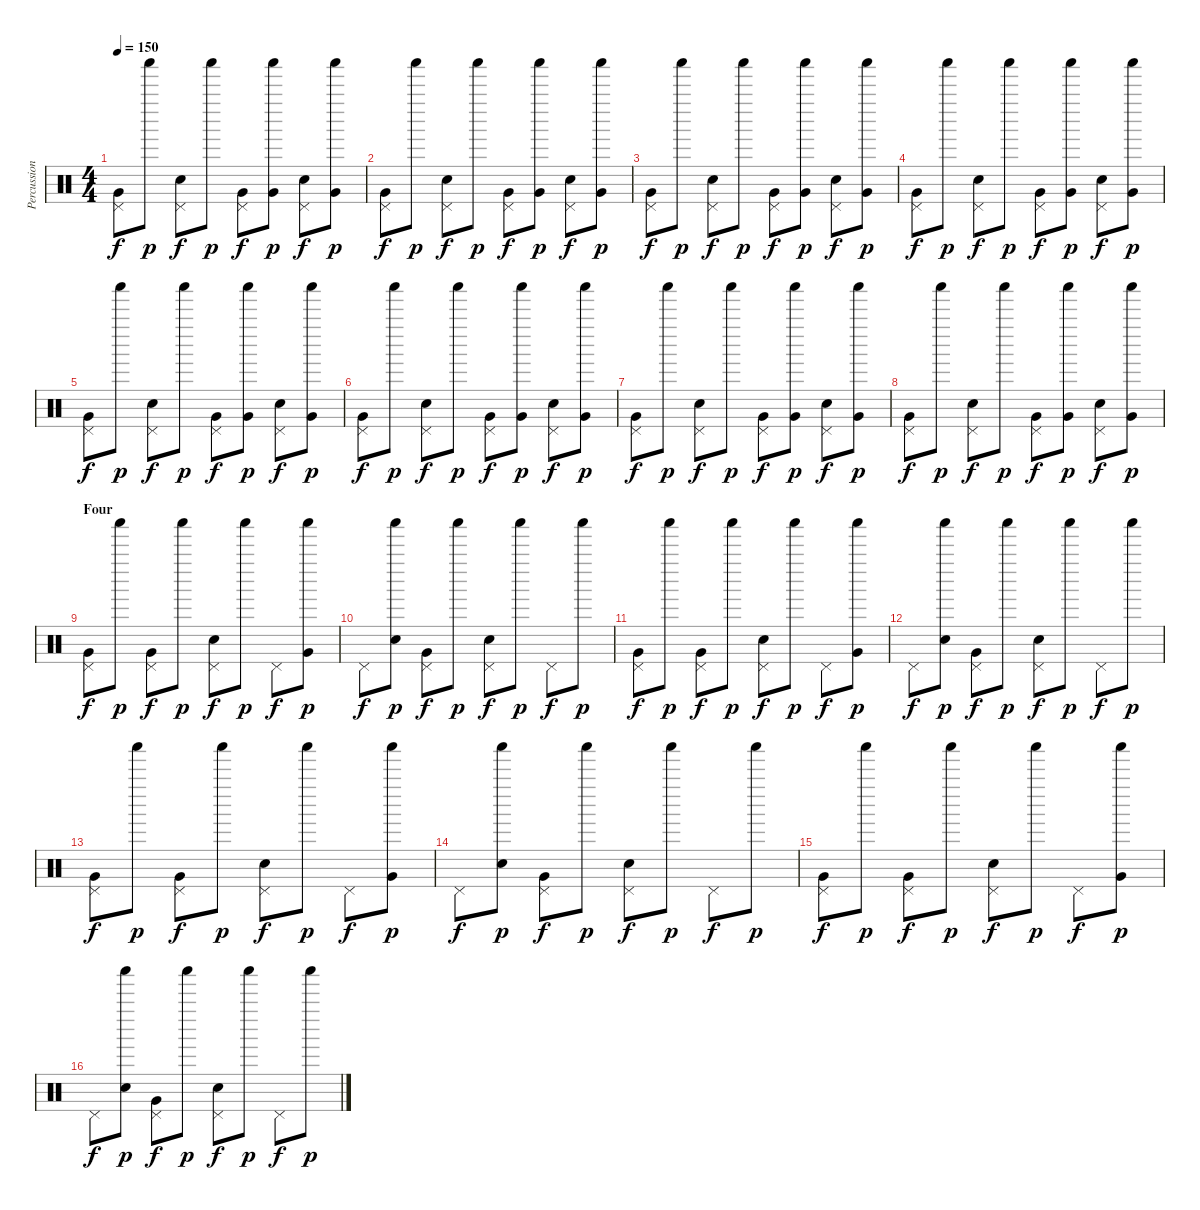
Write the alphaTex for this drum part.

\track ("Percussion" "Percussion") {instrument percussion}
\staff {score}
\articulation defaults
\ts (4 4)
\tempo 150
\clef neutral
\ks c
("Very Low Tom (hit)" "Pedal Hi-Hat (hit)").8{dy f} "Shaker (hit)".8{dy p} ("Snare (hit) 2" "Pedal Hi-Hat (hit)").8{dy f} "Shaker (hit)".8{dy p} ("Very Low Tom (hit)" "Pedal Hi-Hat (hit)").8{dy f} ("Very Low Tom (hit)" "Shaker (hit)").8{dy p} ("Snare (hit) 2" "Pedal Hi-Hat (hit)").8{dy f} ("Very Low Tom (hit)" "Shaker (hit)").8{dy p} |
("Very Low Tom (hit)" "Pedal Hi-Hat (hit)").8{dy f} "Shaker (hit)".8{dy p} ("Snare (hit) 2" "Pedal Hi-Hat (hit)").8{dy f} "Shaker (hit)".8{dy p} ("Very Low Tom (hit)" "Pedal Hi-Hat (hit)").8{dy f} ("Very Low Tom (hit)" "Shaker (hit)").8{dy p} ("Snare (hit) 2" "Pedal Hi-Hat (hit)").8{dy f} ("Very Low Tom (hit)" "Shaker (hit)").8{dy p} |
("Very Low Tom (hit)" "Pedal Hi-Hat (hit)").8{dy f} "Shaker (hit)".8{dy p} ("Snare (hit) 2" "Pedal Hi-Hat (hit)").8{dy f} "Shaker (hit)".8{dy p} ("Very Low Tom (hit)" "Pedal Hi-Hat (hit)").8{dy f} ("Very Low Tom (hit)" "Shaker (hit)").8{dy p} ("Snare (hit) 2" "Pedal Hi-Hat (hit)").8{dy f} ("Very Low Tom (hit)" "Shaker (hit)").8{dy p} |
("Very Low Tom (hit)" "Pedal Hi-Hat (hit)").8{dy f} "Shaker (hit)".8{dy p} ("Snare (hit) 2" "Pedal Hi-Hat (hit)").8{dy f} "Shaker (hit)".8{dy p} ("Very Low Tom (hit)" "Pedal Hi-Hat (hit)").8{dy f} ("Very Low Tom (hit)" "Shaker (hit)").8{dy p} ("Snare (hit) 2" "Pedal Hi-Hat (hit)").8{dy f} ("Very Low Tom (hit)" "Shaker (hit)").8{dy p} |
("Very Low Tom (hit)" "Pedal Hi-Hat (hit)").8{dy f} "Shaker (hit)".8{dy p} ("Snare (hit) 2" "Pedal Hi-Hat (hit)").8{dy f} "Shaker (hit)".8{dy p} ("Very Low Tom (hit)" "Pedal Hi-Hat (hit)").8{dy f} ("Very Low Tom (hit)" "Shaker (hit)").8{dy p} ("Snare (hit) 2" "Pedal Hi-Hat (hit)").8{dy f} ("Very Low Tom (hit)" "Shaker (hit)").8{dy p} |
("Very Low Tom (hit)" "Pedal Hi-Hat (hit)").8{dy f} "Shaker (hit)".8{dy p} ("Snare (hit) 2" "Pedal Hi-Hat (hit)").8{dy f} "Shaker (hit)".8{dy p} ("Very Low Tom (hit)" "Pedal Hi-Hat (hit)").8{dy f} ("Very Low Tom (hit)" "Shaker (hit)").8{dy p} ("Snare (hit) 2" "Pedal Hi-Hat (hit)").8{dy f} ("Very Low Tom (hit)" "Shaker (hit)").8{dy p} |
("Very Low Tom (hit)" "Pedal Hi-Hat (hit)").8{dy f} "Shaker (hit)".8{dy p} ("Snare (hit) 2" "Pedal Hi-Hat (hit)").8{dy f} "Shaker (hit)".8{dy p} ("Very Low Tom (hit)" "Pedal Hi-Hat (hit)").8{dy f} ("Very Low Tom (hit)" "Shaker (hit)").8{dy p} ("Snare (hit) 2" "Pedal Hi-Hat (hit)").8{dy f} ("Very Low Tom (hit)" "Shaker (hit)").8{dy p} |
("Very Low Tom (hit)" "Pedal Hi-Hat (hit)").8{dy f} "Shaker (hit)".8{dy p} ("Snare (hit) 2" "Pedal Hi-Hat (hit)").8{dy f} "Shaker (hit)".8{dy p} ("Very Low Tom (hit)" "Pedal Hi-Hat (hit)").8{dy f} ("Very Low Tom (hit)" "Shaker (hit)").8{dy p} ("Snare (hit) 2" "Pedal Hi-Hat (hit)").8{dy f} ("Very Low Tom (hit)" "Shaker (hit)").8{dy p} |
\section ("" "Four")
("Very Low Tom (hit)" "Pedal Hi-Hat (hit)").8{dy f} "Shaker (hit)".8{dy p} ("Very Low Tom (hit)" "Pedal Hi-Hat (hit)").8{dy f} "Shaker (hit)".8{dy p} ("Snare (hit) 2" "Pedal Hi-Hat (hit)").8{dy f} "Shaker (hit)".8{dy p} "Pedal Hi-Hat (hit)".8{dy f} ("Very Low Tom (hit)" "Shaker (hit)").8{dy p} |
"Pedal Hi-Hat (hit)".8{dy f} ("Snare (hit) 2" "Shaker (hit)").8{dy p} ("Very Low Tom (hit)" "Pedal Hi-Hat (hit)").8{dy f} "Shaker (hit)".8{dy p} ("Snare (hit) 2" "Pedal Hi-Hat (hit)").8{dy f} "Shaker (hit)".8{dy p} "Pedal Hi-Hat (hit)".8{dy f} "Shaker (hit)".8{dy p} |
("Very Low Tom (hit)" "Pedal Hi-Hat (hit)").8{dy f} "Shaker (hit)".8{dy p} ("Very Low Tom (hit)" "Pedal Hi-Hat (hit)").8{dy f} "Shaker (hit)".8{dy p} ("Snare (hit) 2" "Pedal Hi-Hat (hit)").8{dy f} "Shaker (hit)".8{dy p} "Pedal Hi-Hat (hit)".8{dy f} ("Very Low Tom (hit)" "Shaker (hit)").8{dy p} |
"Pedal Hi-Hat (hit)".8{dy f} ("Snare (hit) 2" "Shaker (hit)").8{dy p} ("Very Low Tom (hit)" "Pedal Hi-Hat (hit)").8{dy f} "Shaker (hit)".8{dy p} ("Snare (hit) 2" "Pedal Hi-Hat (hit)").8{dy f} "Shaker (hit)".8{dy p} "Pedal Hi-Hat (hit)".8{dy f} "Shaker (hit)".8{dy p} |
("Very Low Tom (hit)" "Pedal Hi-Hat (hit)").8{dy f} "Shaker (hit)".8{dy p} ("Very Low Tom (hit)" "Pedal Hi-Hat (hit)").8{dy f} "Shaker (hit)".8{dy p} ("Snare (hit) 2" "Pedal Hi-Hat (hit)").8{dy f} "Shaker (hit)".8{dy p} "Pedal Hi-Hat (hit)".8{dy f} ("Very Low Tom (hit)" "Shaker (hit)").8{dy p} |
"Pedal Hi-Hat (hit)".8{dy f} ("Snare (hit) 2" "Shaker (hit)").8{dy p} ("Very Low Tom (hit)" "Pedal Hi-Hat (hit)").8{dy f} "Shaker (hit)".8{dy p} ("Snare (hit) 2" "Pedal Hi-Hat (hit)").8{dy f} "Shaker (hit)".8{dy p} "Pedal Hi-Hat (hit)".8{dy f} "Shaker (hit)".8{dy p} |
("Very Low Tom (hit)" "Pedal Hi-Hat (hit)").8{dy f} "Shaker (hit)".8{dy p} ("Very Low Tom (hit)" "Pedal Hi-Hat (hit)").8{dy f} "Shaker (hit)".8{dy p} ("Snare (hit) 2" "Pedal Hi-Hat (hit)").8{dy f} "Shaker (hit)".8{dy p} "Pedal Hi-Hat (hit)".8{dy f} ("Very Low Tom (hit)" "Shaker (hit)").8{dy p} |
"Pedal Hi-Hat (hit)".8{dy f} ("Snare (hit) 2" "Shaker (hit)").8{dy p} ("Very Low Tom (hit)" "Pedal Hi-Hat (hit)").8{dy f} "Shaker (hit)".8{dy p} ("Snare (hit) 2" "Pedal Hi-Hat (hit)").8{dy f} "Shaker (hit)".8{dy p} "Pedal Hi-Hat (hit)".8{dy f} "Shaker (hit)".8{dy p}
